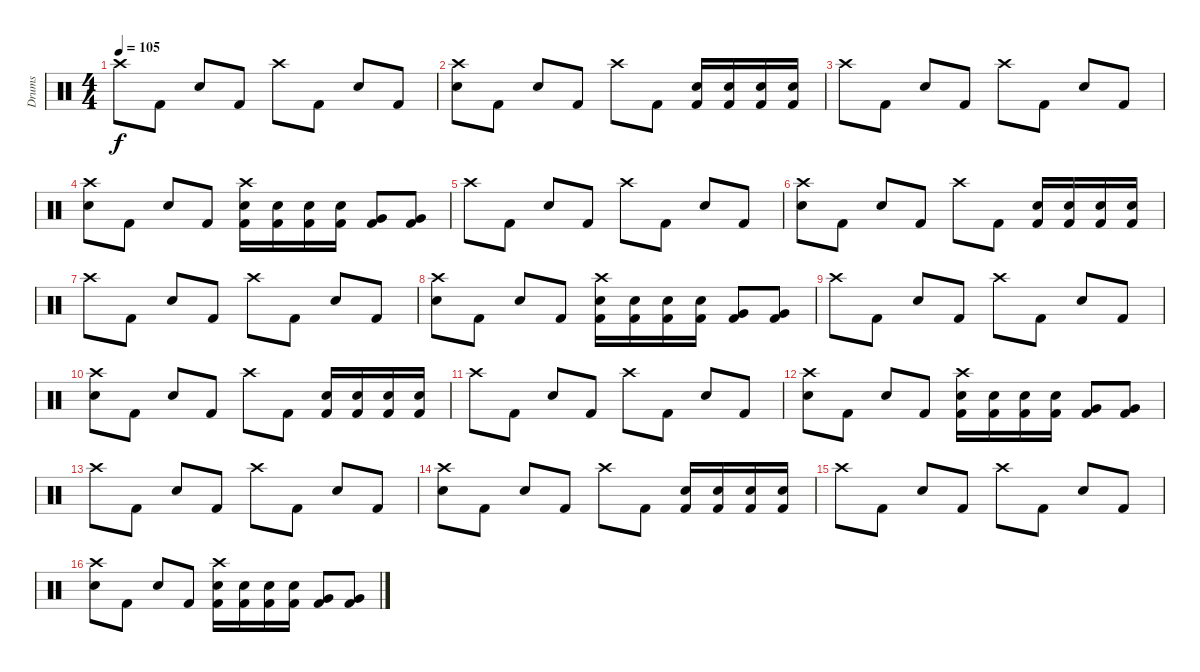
\track ("Drums" "Drums") {instrument percussion}
\staff {score}
\articulation defaults
\ts (4 4)
\tempo 105
\clef neutral
\ks c "Crash high (hit)".8{dy f} "Kick (hit) 2".8 "Snare (hit) 2".8 "Kick (hit) 2".8 "Crash high (hit)".8 "Kick (hit) 2".8 "Snare (hit) 2".8 "Kick (hit) 2".8
|
("Crash high (hit)" "Snare (hit) 2").8 "Kick (hit) 2".8 "Snare (hit) 2".8 "Kick (hit) 2".8 "Crash high (hit)".8 "Kick (hit) 2".8 ("Snare (hit) 2" "Kick (hit) 2").16 ("Snare (hit) 2" "Kick (hit) 2").16 ("Snare (hit) 2" "Kick (hit) 2").16 ("Snare (hit) 2" "Kick (hit) 2").16 |
"Crash high (hit)".8 "Kick (hit) 2".8 "Snare (hit) 2".8 "Kick (hit) 2".8 "Crash high (hit)".8 "Kick (hit) 2".8 "Snare (hit) 2".8 "Kick (hit) 2".8 |
("Crash high (hit)" "Snare (hit) 2").8 "Kick (hit) 2".8 "Snare (hit) 2".8 "Kick (hit) 2".8 ("Crash high (hit)" "Snare (hit) 2" "Kick (hit) 2").16 ("Snare (hit) 2" "Kick (hit) 2").16 ("Snare (hit) 2" "Kick (hit) 2").16 ("Snare (hit) 2" "Kick (hit) 2").16 ("Very Low Tom (hit)" "Kick (hit) 2").8 ("Very Low Tom (hit)" "Kick (hit) 2").8 |
"Crash high (hit)".8 "Kick (hit) 2".8 "Snare (hit) 2".8 "Kick (hit) 2".8 "Crash high (hit)".8 "Kick (hit) 2".8 "Snare (hit) 2".8 "Kick (hit) 2".8 |
("Crash high (hit)" "Snare (hit) 2").8 "Kick (hit) 2".8 "Snare (hit) 2".8 "Kick (hit) 2".8 "Crash high (hit)".8 "Kick (hit) 2".8 ("Snare (hit) 2" "Kick (hit) 2").16 ("Snare (hit) 2" "Kick (hit) 2").16 ("Snare (hit) 2" "Kick (hit) 2").16 ("Snare (hit) 2" "Kick (hit) 2").16 |
"Crash high (hit)".8 "Kick (hit) 2".8 "Snare (hit) 2".8 "Kick (hit) 2".8 "Crash high (hit)".8 "Kick (hit) 2".8 "Snare (hit) 2".8 "Kick (hit) 2".8 |
("Crash high (hit)" "Snare (hit) 2").8 "Kick (hit) 2".8 "Snare (hit) 2".8 "Kick (hit) 2".8 ("Crash high (hit)" "Snare (hit) 2" "Kick (hit) 2").16 ("Snare (hit) 2" "Kick (hit) 2").16 ("Snare (hit) 2" "Kick (hit) 2").16 ("Snare (hit) 2" "Kick (hit) 2").16 ("Very Low Tom (hit)" "Kick (hit) 2").8 ("Very Low Tom (hit)" "Kick (hit) 2").8 |
"Crash high (hit)".8 "Kick (hit) 2".8 "Snare (hit) 2".8 "Kick (hit) 2".8 "Crash high (hit)".8 "Kick (hit) 2".8 "Snare (hit) 2".8 "Kick (hit) 2".8 |
("Crash high (hit)" "Snare (hit) 2").8 "Kick (hit) 2".8 "Snare (hit) 2".8 "Kick (hit) 2".8 "Crash high (hit)".8 "Kick (hit) 2".8 ("Snare (hit) 2" "Kick (hit) 2").16 ("Snare (hit) 2" "Kick (hit) 2").16 ("Snare (hit) 2" "Kick (hit) 2").16 ("Snare (hit) 2" "Kick (hit) 2").16 |
"Crash high (hit)".8 "Kick (hit) 2".8 "Snare (hit) 2".8 "Kick (hit) 2".8 "Crash high (hit)".8 "Kick (hit) 2".8 "Snare (hit) 2".8 "Kick (hit) 2".8 |
("Crash high (hit)" "Snare (hit) 2").8 "Kick (hit) 2".8 "Snare (hit) 2".8 "Kick (hit) 2".8 ("Crash high (hit)" "Snare (hit) 2" "Kick (hit) 2").16 ("Snare (hit) 2" "Kick (hit) 2").16 ("Snare (hit) 2" "Kick (hit) 2").16 ("Snare (hit) 2" "Kick (hit) 2").16 ("Very Low Tom (hit)" "Kick (hit) 2").8 ("Very Low Tom (hit)" "Kick (hit) 2").8 |
"Crash high (hit)".8 "Kick (hit) 2".8 "Snare (hit) 2".8 "Kick (hit) 2".8 "Crash high (hit)".8 "Kick (hit) 2".8 "Snare (hit) 2".8 "Kick (hit) 2".8 |
("Crash high (hit)" "Snare (hit) 2").8 "Kick (hit) 2".8 "Snare (hit) 2".8 "Kick (hit) 2".8 "Crash high (hit)".8 "Kick (hit) 2".8 ("Snare (hit) 2" "Kick (hit) 2").16 ("Snare (hit) 2" "Kick (hit) 2").16 ("Snare (hit) 2" "Kick (hit) 2").16 ("Snare (hit) 2" "Kick (hit) 2").16 |
"Crash high (hit)".8 "Kick (hit) 2".8 "Snare (hit) 2".8 "Kick (hit) 2".8 "Crash high (hit)".8 "Kick (hit) 2".8 "Snare (hit) 2".8 "Kick (hit) 2".8 |
("Crash high (hit)" "Snare (hit) 2").8 "Kick (hit) 2".8 "Snare (hit) 2".8 "Kick (hit) 2".8 ("Crash high (hit)" "Snare (hit) 2" "Kick (hit) 2").16 ("Snare (hit) 2" "Kick (hit) 2").16 ("Snare (hit) 2" "Kick (hit) 2").16 ("Snare (hit) 2" "Kick (hit) 2").16 ("Very Low Tom (hit)" "Kick (hit) 2").8 ("Very Low Tom (hit)" "Kick (hit) 2").8
